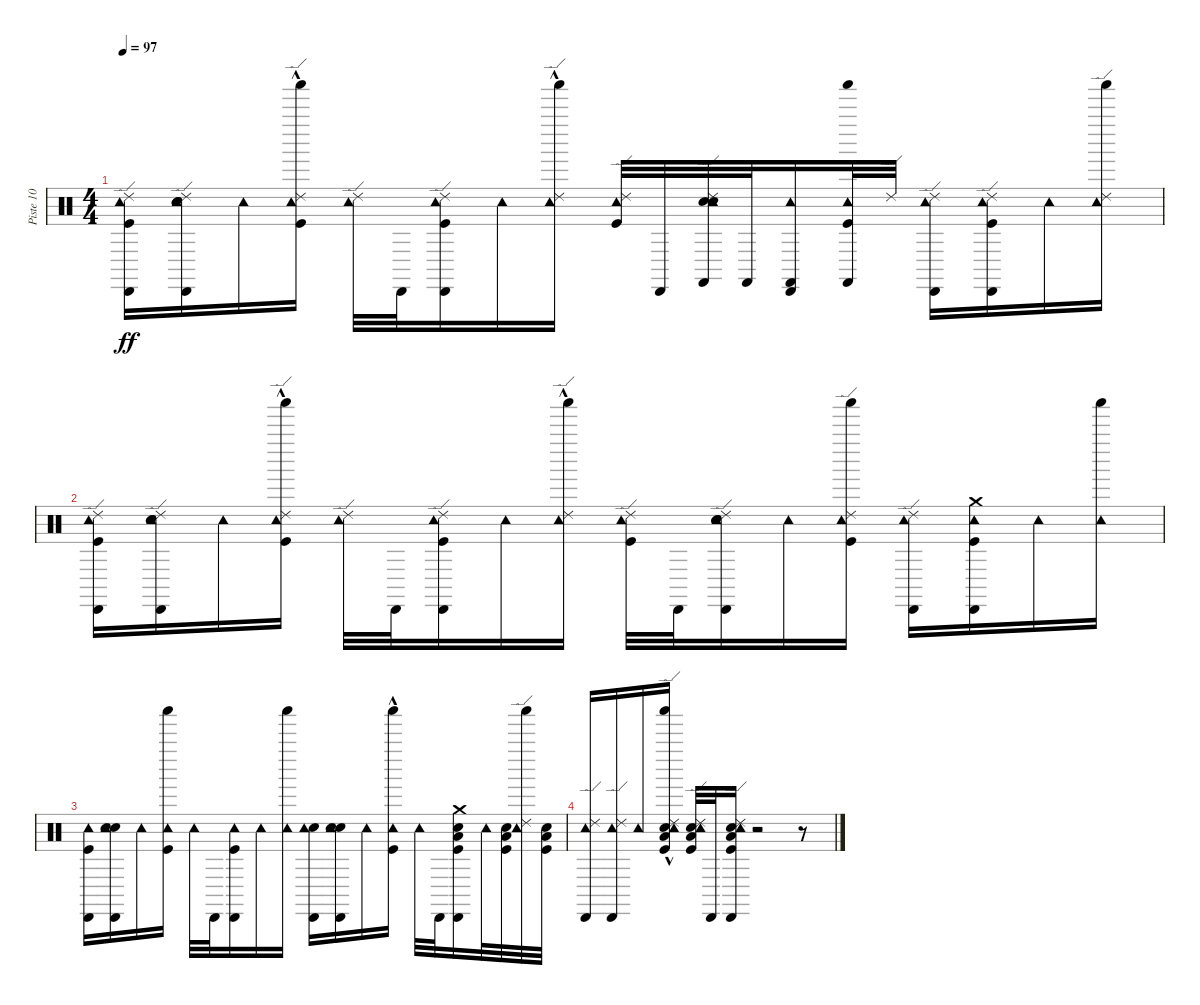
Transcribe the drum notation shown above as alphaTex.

\track ("Piste 10" "Piste 10") {instrument percussion}
\staff {score}
\articulation defaults
\ts (4 4)
\tempo 97
\clef neutral
\ks c
("Cabasa (hit)" "Kick (hit)" "Tambourine (hit)" "Ride (edge) 2").16{dy ff} ("Cabasa (hit)" "Hand Clap (hit)" "Electric Snare (hit)" "Tambourine (hit)" "Ride (edge) 2").16 "Tambourine (hit)".16 ("Shaker (hit)"{hac} "Kick (hit)" "Tambourine (hit)" "Ride (edge) 2").16 ("Tambourine (hit)" "Ride (edge) 2").32 "Cabasa (hit)".32 ("Cabasa (hit)" "Kick (hit)" "Tambourine (hit)" "Ride (edge) 2").16 "Tambourine (hit)".16 ("Shaker (hit)"{hac} "Tambourine (hit)" "Ride (edge) 2").16 ("Kick (hit)" "Tambourine (hit)" "Ride (edge) 2").32 "Cabasa (hit)".32 ("Castanets (hit)" "Hand Clap (hit)" "Electric Snare (hit)" "Tambourine (hit)" "Ride (edge) 2").32 "Castanets (hit)".32 ("Cabasa (hit)" "Castanets (hit)" "Tambourine (hit)").16 ("Shaker (hit)" "Castanets (hit)" "Kick (hit)" "Tambourine (hit)").32 "Ride (edge) 2".32 ("Cabasa (hit)" "Tambourine (hit)" "Ride (edge) 2").16 ("Cabasa (hit)" "Kick (hit)" "Tambourine (hit)" "Ride (edge) 2").16 "Tambourine (hit)".16 ("Shaker (hit)" "Tambourine (hit)" "Ride (edge) 2").16 |
("Cabasa (hit)" "Kick (hit)" "Tambourine (hit)" "Ride (edge) 2").16 ("Cabasa (hit)" "Hand Clap (hit)" "Electric Snare (hit)" "Tambourine (hit)" "Ride (edge) 2").16 "Tambourine (hit)".16 ("Shaker (hit)"{hac} "Kick (hit)" "Tambourine (hit)" "Ride (edge) 2").16 ("Tambourine (hit)" "Ride (edge) 2").32 "Cabasa (hit)".32 ("Cabasa (hit)" "Kick (hit)" "Tambourine (hit)" "Ride (edge) 2").16 "Tambourine (hit)".16 ("Shaker (hit)"{hac} "Tambourine (hit)" "Ride (edge) 2").16 ("Kick (hit)" "Tambourine (hit)" "Ride (edge) 2").32 "Cabasa (hit)".32 ("Cabasa (hit)" "Hand Clap (hit)" "Electric Snare (hit)" "Tambourine (hit)" "Ride (edge) 2").16 "Tambourine (hit)".16 ("Shaker (hit)" "Kick (hit)" "Tambourine (hit)" "Ride (edge) 2").16 ("Cabasa (hit)" "Tambourine (hit)" "Ride (edge) 2").16 ("Cabasa (hit)" "Kick (hit)" "Tambourine (hit)" "Crash medium (hit)").16 "Tambourine (hit)".16 ("Shaker (hit)" "Tambourine (hit)").16 |
("Cabasa (hit)" "Kick (hit)" "Tambourine (hit)").16 ("Cabasa (hit)" "Hand Clap (hit)" "Electric Snare (hit)" "Tambourine (hit)").16 "Tambourine (hit)".16 ("Shaker (hit)" "Kick (hit)" "Tambourine (hit)").16 "Tambourine (hit)".32 "Cabasa (hit)".32 ("Cabasa (hit)" "Kick (hit)" "Tambourine (hit)").16 "Tambourine (hit)".16 ("Shaker (hit)" "Tambourine (hit)").16 ("Cabasa (hit)" "Electric Snare (hit)" "Tambourine (hit)").16 ("Cabasa (hit)" "Hand Clap (hit)" "Electric Snare (hit)" "Tambourine (hit)").16 "Tambourine (hit)".16 ("Shaker (hit)"{hac} "Kick (hit)" "Tambourine (hit)").16 "Tambourine (hit)".32 "Cabasa (hit)".32 ("Cabasa (hit)" "Kick (hit)" "Electric Snare (hit)" "Low Floor Tom (hit)" "Crash medium (hit)").16 "Tambourine (hit)".32 ("Kick (hit)" "Electric Snare (hit)" "Low Floor Tom (hit)").32 ("Shaker (hit)" "Tambourine (hit)" "Ride (edge) 2").32 ("Kick (hit)" "Electric Snare (hit)" "Low Floor Tom (hit)").32 |
("Cabasa (hit)" "Tambourine (hit)" "Ride (edge) 2").16 ("Cabasa (hit)" "Tambourine (hit)" "Ride (edge) 2").16 "Tambourine (hit)".16 ("Shaker (hit)"{hac} "Kick (hit)" "Electric Snare (hit)" "Low Floor Tom (hit)" "Tambourine (hit)" "Ride (edge) 2").16 ("Kick (hit)" "Electric Snare (hit)" "Low Floor Tom (hit)" "Tambourine (hit)" "Ride (edge) 2").32 "Cabasa (hit)".32 ("Cabasa (hit)" "Kick (hit)" "Electric Snare (hit)" "Low Floor Tom (hit)" "Tambourine (hit)" "Ride (edge) 2").16 r.2 r.8
